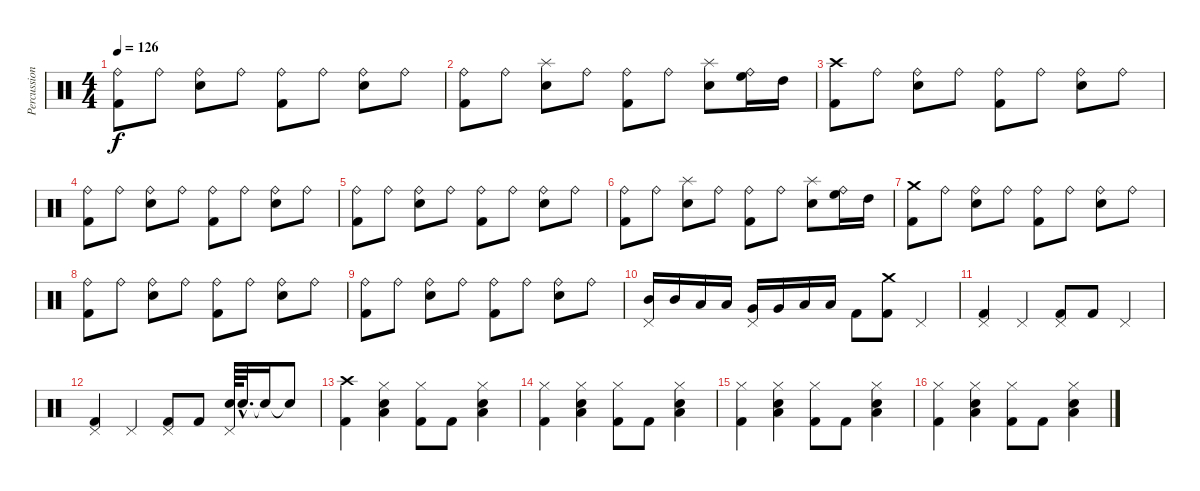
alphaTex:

\track ("Percussion" "Percussion") {instrument percussion}
\staff {score}
\articulation defaults
\ts (4 4)
\tempo 126
\clef neutral
\ks c
("Ride (bell)" "Kick (hit) 2").8{dy f} "Ride (bell)".8 ("Ride (bell)" "Metronome (bell)").8 "Ride (bell)".8 ("Ride (bell)" "Kick (hit) 2").8 "Ride (bell)".8 ("Ride (bell)" "Metronome (bell)").8 "Ride (bell)".8 |
("Ride (bell)" "Kick (hit) 2").8 "Ride (bell)".8 ("Splash (hit)" "Metronome (bell)").8 "Ride (bell)".8 ("Ride (bell)" "Kick (hit) 2").8 "Ride (bell)".8 ("Splash (hit)" "Metronome (bell)").8 ("Ride (bell)" "High Floor Tom (hit)").16 "High Tom (hit)".16 |
("Crash high (hit)" "Kick (hit) 2").8 "Ride (bell)".8 ("Ride (bell)" "Metronome (bell)").8 "Ride (bell)".8 ("Ride (bell)" "Kick (hit) 2").8 "Ride (bell)".8 ("Ride (bell)" "Metronome (bell)").8 "Ride (bell)".8 |
("Ride (bell)" "Kick (hit) 2").8 "Ride (bell)".8 ("Ride (bell)" "Metronome (bell)").8 "Ride (bell)".8 ("Ride (bell)" "Kick (hit) 2").8 "Ride (bell)".8 ("Ride (bell)" "Metronome (bell)").8 "Ride (bell)".8 |
("Ride (bell)" "Kick (hit) 2").8 "Ride (bell)".8 ("Ride (bell)" "Metronome (bell)").8 "Ride (bell)".8 ("Ride (bell)" "Kick (hit) 2").8 "Ride (bell)".8 ("Ride (bell)" "Metronome (bell)").8 "Ride (bell)".8 |
("Ride (bell)" "Kick (hit) 2").8 "Ride (bell)".8 ("Splash (hit)" "Metronome (bell)").8 "Ride (bell)".8 ("Ride (bell)" "Kick (hit) 2").8 "Ride (bell)".8 ("Splash (hit)" "Metronome (bell)").8 ("Ride (bell)" "High Floor Tom (hit)").16 "High Tom (hit)".16 |
("Crash medium (hit)" "Kick (hit) 2").8 "Ride (bell)".8 ("Ride (bell)" "Metronome (bell)").8 "Ride (bell)".8 ("Ride (bell)" "Kick (hit) 2").8 "Ride (bell)".8 ("Ride (bell)" "Metronome (bell)").8 "Ride (bell)".8 |
("Ride (bell)" "Kick (hit) 2").8 "Ride (bell)".8 ("Ride (bell)" "Metronome (bell)").8 "Ride (bell)".8 ("Ride (bell)" "Kick (hit) 2").8 "Ride (bell)".8 ("Ride (bell)" "Metronome (bell)").8 "Ride (bell)".8 |
("Ride (bell)" "Kick (hit) 2").8 "Ride (bell)".8 ("Ride (bell)" "Metronome (bell)").8 "Ride (bell)".8 ("Ride (bell)" "Kick (hit) 2").8 "Ride (bell)".8 ("Ride (bell)" "Metronome (bell)").8 "Ride (bell)".8 |
("Pedal Hi-Hat (hit)" "Mid Tom (hit)").16 "Mid Tom (hit)".16 "Low Tom (hit)".16 "Low Tom (hit)".16 ("Pedal Hi-Hat (hit)" "Very Low Tom (hit)").16 "Very Low Tom (hit)".16 "Low Floor Tom (hit)".16 "Low Floor Tom (hit)".16 "Kick (hit) 2".8 ("Crash medium (hit)" "Kick (hit) 2").8 "Pedal Hi-Hat (hit)".4 |
("Pedal Hi-Hat (hit)" "Kick (hit) 2").4 "Pedal Hi-Hat (hit)".4 ("Pedal Hi-Hat (hit)" "Kick (hit) 2").8 "Kick (hit) 2".8 "Pedal Hi-Hat (hit)".4 |
("Pedal Hi-Hat (hit)" "Kick (hit) 2").4 "Pedal Hi-Hat (hit)".4 ("Pedal Hi-Hat (hit)" "Kick (hit) 2").8 "Kick (hit) 2".8 ("Pedal Hi-Hat (hit)" "Metronome (bell)").64 "Metronome (bell)"{hac}.32{d} "Snare (hit)"{t}.16 "Snare (hit)"{t}.8 |
("Crash high (hit)" "Kick (hit) 2").4 ("Hi-Hat (closed)" "Low Floor Tom (hit)" "Metronome (bell)").4 ("Hi-Hat (closed)" "Kick (hit) 2").8 "Kick (hit) 2".8 ("Hi-Hat (closed)" "Low Floor Tom (hit)" "Metronome (bell)").4 |
("Hi-Hat (closed)" "Kick (hit) 2").4 ("Hi-Hat (closed)" "Low Floor Tom (hit)" "Metronome (bell)").4 ("Hi-Hat (closed)" "Kick (hit) 2").8 "Kick (hit) 2".8 ("Hi-Hat (closed)" "Low Floor Tom (hit)" "Metronome (bell)").4 |
("Hi-Hat (closed)" "Kick (hit) 2").4 ("Hi-Hat (closed)" "Low Floor Tom (hit)" "Metronome (bell)").4 ("Hi-Hat (closed)" "Kick (hit) 2").8 "Kick (hit) 2".8 ("Hi-Hat (closed)" "Low Floor Tom (hit)" "Metronome (bell)").4 |
("Hi-Hat (closed)" "Kick (hit) 2").4 ("Hi-Hat (closed)" "Low Floor Tom (hit)" "Metronome (bell)").4 ("Hi-Hat (closed)" "Kick (hit) 2").8 "Kick (hit) 2".8 ("Hi-Hat (closed)" "Low Floor Tom (hit)" "Metronome (bell)").4
